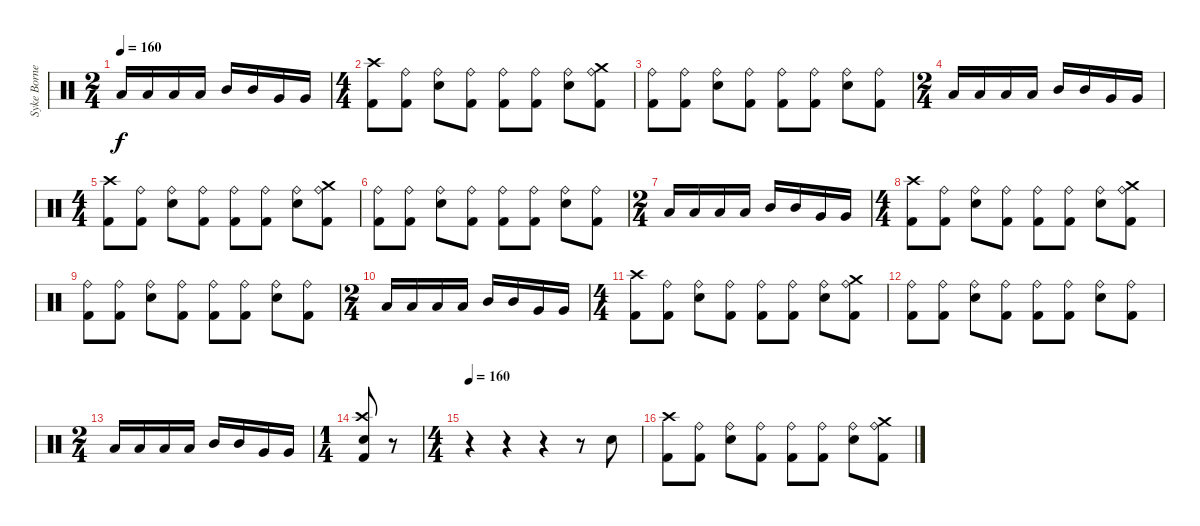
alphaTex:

\track ("Syke Bornetto (Drums)" "Syke Borne") {instrument percussion}
\staff {score}
\articulation defaults
\ts (2 4)
\tempo 160
\clef neutral
\ks c "Low Floor Tom (hit)".16{dy f} "Low Floor Tom (hit)".16 "Low Tom (hit)".16 "Low Tom (hit)".16 "Mid Tom (hit)".16 "Mid Tom (hit)".16 "Very Low Tom (hit)".16 "Very Low Tom (hit)".16
|
\ts (4 4)
("Kick (hit) 2" "Crash high (hit)").8 ("Kick (hit) 2" "Ride (bell)").8 ("Electric Snare (hit)" "Ride (bell)").8 ("Kick (hit) 2" "Ride (bell)").8 ("Kick (hit) 2" "Ride (bell)").8 ("Kick (hit) 2" "Ride (bell)").8 ("Electric Snare (hit)" "Ride (bell)").8 ("Kick (hit) 2" "Crash medium (hit)" "Ride (bell)").8 |
("Kick (hit) 2" "Ride (bell)").8 ("Kick (hit) 2" "Ride (bell)").8 ("Electric Snare (hit)" "Ride (bell)").8 ("Kick (hit) 2" "Ride (bell)").8 ("Kick (hit) 2" "Ride (bell)").8 ("Kick (hit) 2" "Ride (bell)").8 ("Electric Snare (hit)" "Ride (bell)").8 ("Kick (hit) 2" "Ride (bell)").8 |
\ts (2 4)
"Low Floor Tom (hit)".16 "Low Floor Tom (hit)".16 "Low Tom (hit)".16 "Low Tom (hit)".16 "Mid Tom (hit)".16 "Mid Tom (hit)".16 "Very Low Tom (hit)".16 "Very Low Tom (hit)".16 |
\ts (4 4)
("Kick (hit) 2" "Crash high (hit)").8 ("Kick (hit) 2" "Ride (bell)").8 ("Electric Snare (hit)" "Ride (bell)").8 ("Kick (hit) 2" "Ride (bell)").8 ("Kick (hit) 2" "Ride (bell)").8 ("Kick (hit) 2" "Ride (bell)").8 ("Electric Snare (hit)" "Ride (bell)").8 ("Kick (hit) 2" "Crash medium (hit)" "Ride (bell)").8 |
("Kick (hit) 2" "Ride (bell)").8 ("Kick (hit) 2" "Ride (bell)").8 ("Electric Snare (hit)" "Ride (bell)").8 ("Kick (hit) 2" "Ride (bell)").8 ("Kick (hit) 2" "Ride (bell)").8 ("Kick (hit) 2" "Ride (bell)").8 ("Electric Snare (hit)" "Ride (bell)").8 ("Kick (hit) 2" "Ride (bell)").8 |
\ts (2 4)
"Low Floor Tom (hit)".16 "Low Floor Tom (hit)".16 "Low Tom (hit)".16 "Low Tom (hit)".16 "Mid Tom (hit)".16 "Mid Tom (hit)".16 "Very Low Tom (hit)".16 "Very Low Tom (hit)".16 |
\ts (4 4)
("Kick (hit) 2" "Crash high (hit)").8 ("Kick (hit) 2" "Ride (bell)").8 ("Electric Snare (hit)" "Ride (bell)").8 ("Kick (hit) 2" "Ride (bell)").8 ("Kick (hit) 2" "Ride (bell)").8 ("Kick (hit) 2" "Ride (bell)").8 ("Electric Snare (hit)" "Ride (bell)").8 ("Kick (hit) 2" "Crash medium (hit)" "Ride (bell)").8 |
("Kick (hit) 2" "Ride (bell)").8 ("Kick (hit) 2" "Ride (bell)").8 ("Electric Snare (hit)" "Ride (bell)").8 ("Kick (hit) 2" "Ride (bell)").8 ("Kick (hit) 2" "Ride (bell)").8 ("Kick (hit) 2" "Ride (bell)").8 ("Electric Snare (hit)" "Ride (bell)").8 ("Kick (hit) 2" "Ride (bell)").8 |
\ts (2 4)
"Low Floor Tom (hit)".16 "Low Floor Tom (hit)".16 "Low Tom (hit)".16 "Low Tom (hit)".16 "Mid Tom (hit)".16 "Mid Tom (hit)".16 "Very Low Tom (hit)".16 "Very Low Tom (hit)".16 |
\ts (4 4)
("Kick (hit) 2" "Crash high (hit)").8 ("Kick (hit) 2" "Ride (bell)").8 ("Electric Snare (hit)" "Ride (bell)").8 ("Kick (hit) 2" "Ride (bell)").8 ("Kick (hit) 2" "Ride (bell)").8 ("Kick (hit) 2" "Ride (bell)").8 ("Electric Snare (hit)" "Ride (bell)").8 ("Kick (hit) 2" "Crash medium (hit)" "Ride (bell)").8 |
("Kick (hit) 2" "Ride (bell)").8 ("Kick (hit) 2" "Ride (bell)").8 ("Electric Snare (hit)" "Ride (bell)").8 ("Kick (hit) 2" "Ride (bell)").8 ("Kick (hit) 2" "Ride (bell)").8 ("Kick (hit) 2" "Ride (bell)").8 ("Electric Snare (hit)" "Ride (bell)").8 ("Kick (hit) 2" "Ride (bell)").8 |
\ts (2 4)
"Low Floor Tom (hit)".16 "Low Floor Tom (hit)".16 "Low Tom (hit)".16 "Low Tom (hit)".16 "Mid Tom (hit)".16 "Mid Tom (hit)".16 "Very Low Tom (hit)".16 "Very Low Tom (hit)".16 |
\ts (1 4)
("Crash high (hit)" "Electric Snare (hit)" "Kick (hit) 2").8 r.8 |
\ts (4 4)
\tempo 160
r.4 r.4 r.4 r.8 "Electric Snare (hit)".8 |
("Kick (hit) 2" "Crash high (hit)").8 ("Kick (hit) 2" "Ride (bell)").8 ("Electric Snare (hit)" "Ride (bell)").8 ("Kick (hit) 2" "Ride (bell)").8 ("Kick (hit) 2" "Ride (bell)").8 ("Kick (hit) 2" "Ride (bell)").8 ("Electric Snare (hit)" "Ride (bell)").8 ("Kick (hit) 2" "Crash medium (hit)" "Ride (bell)").8
